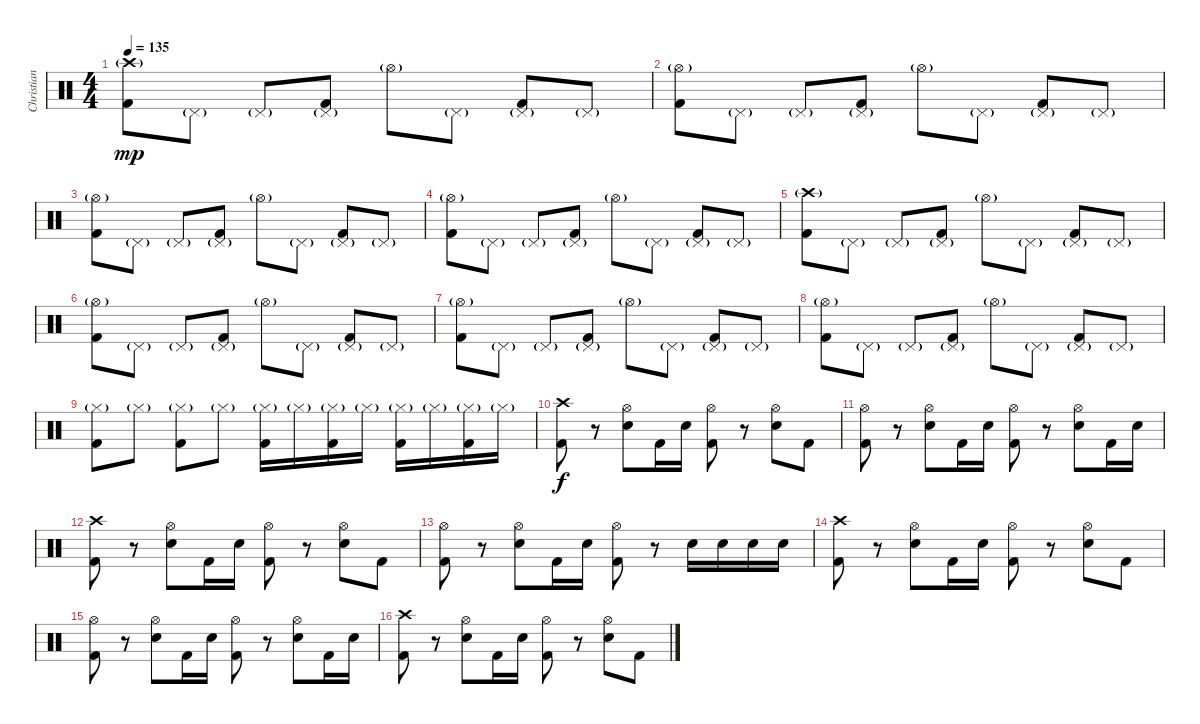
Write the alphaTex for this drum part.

\track ("Christian" "Christian") {instrument percussion}
\staff {score}
\articulation defaults
\ts (4 4)
\tempo 135
\clef neutral
\ks c
("Crash high (hit)"{g} "Kick (hit) 2").8{dy mp} "Pedal Hi-Hat (hit)"{g}.8 "Pedal Hi-Hat (hit)"{g}.8 ("Pedal Hi-Hat (hit)"{g} "Kick (hit) 2").8 "Hi-Hat (open)"{g}.8 "Pedal Hi-Hat (hit)"{g}.8 ("Pedal Hi-Hat (hit)"{g} "Kick (hit) 2").8 "Pedal Hi-Hat (hit)"{g}.8 |
("Hi-Hat (open)"{g} "Kick (hit) 2").8 "Pedal Hi-Hat (hit)"{g}.8 "Pedal Hi-Hat (hit)"{g}.8 ("Pedal Hi-Hat (hit)"{g} "Kick (hit) 2").8 "Hi-Hat (open)"{g}.8 "Pedal Hi-Hat (hit)"{g}.8 ("Pedal Hi-Hat (hit)"{g} "Kick (hit) 2").8 "Pedal Hi-Hat (hit)"{g}.8 |
("Hi-Hat (open)"{g} "Kick (hit) 2").8 "Pedal Hi-Hat (hit)"{g}.8 "Pedal Hi-Hat (hit)"{g}.8 ("Pedal Hi-Hat (hit)"{g} "Kick (hit) 2").8 "Hi-Hat (open)"{g}.8 "Pedal Hi-Hat (hit)"{g}.8 ("Pedal Hi-Hat (hit)"{g} "Kick (hit) 2").8 "Pedal Hi-Hat (hit)"{g}.8 |
("Hi-Hat (open)"{g} "Kick (hit) 2").8 "Pedal Hi-Hat (hit)"{g}.8 "Pedal Hi-Hat (hit)"{g}.8 ("Pedal Hi-Hat (hit)"{g} "Kick (hit) 2").8 "Hi-Hat (open)"{g}.8 "Pedal Hi-Hat (hit)"{g}.8 ("Pedal Hi-Hat (hit)"{g} "Kick (hit) 2").8 "Pedal Hi-Hat (hit)"{g}.8 |
("Crash high (hit)"{g} "Kick (hit) 2").8 "Pedal Hi-Hat (hit)"{g}.8 "Pedal Hi-Hat (hit)"{g}.8 ("Pedal Hi-Hat (hit)"{g} "Kick (hit) 2").8 "Hi-Hat (open)"{g}.8 "Pedal Hi-Hat (hit)"{g}.8 ("Pedal Hi-Hat (hit)"{g} "Kick (hit) 2").8 "Pedal Hi-Hat (hit)"{g}.8 |
("Hi-Hat (open)"{g} "Kick (hit) 2").8 "Pedal Hi-Hat (hit)"{g}.8 "Pedal Hi-Hat (hit)"{g}.8 ("Pedal Hi-Hat (hit)"{g} "Kick (hit) 2").8 "Hi-Hat (open)"{g}.8 "Pedal Hi-Hat (hit)"{g}.8 ("Pedal Hi-Hat (hit)"{g} "Kick (hit) 2").8 "Pedal Hi-Hat (hit)"{g}.8 |
("Hi-Hat (open)"{g} "Kick (hit) 2").8 "Pedal Hi-Hat (hit)"{g}.8 "Pedal Hi-Hat (hit)"{g}.8 ("Pedal Hi-Hat (hit)"{g} "Kick (hit) 2").8 "Hi-Hat (open)"{g}.8 "Pedal Hi-Hat (hit)"{g}.8 ("Pedal Hi-Hat (hit)"{g} "Kick (hit) 2").8 "Pedal Hi-Hat (hit)"{g}.8 |
("Hi-Hat (open)"{g} "Kick (hit) 2").8 "Pedal Hi-Hat (hit)"{g}.8 "Pedal Hi-Hat (hit)"{g}.8 ("Pedal Hi-Hat (hit)"{g} "Kick (hit) 2").8 "Hi-Hat (open)"{g}.8 "Pedal Hi-Hat (hit)"{g}.8 ("Pedal Hi-Hat (hit)"{g} "Kick (hit) 2").8 "Pedal Hi-Hat (hit)"{g}.8 |
("Hi-Hat (closed)"{g} "Kick (hit) 2").8 "Hi-Hat (closed)"{g}.8 ("Hi-Hat (closed)"{g} "Kick (hit) 2").8 "Hi-Hat (closed)"{g}.8 ("Hi-Hat (closed)"{g} "Kick (hit) 2").16 "Hi-Hat (closed)"{g}.16 ("Hi-Hat (closed)"{g} "Kick (hit) 2").16 "Hi-Hat (closed)"{g}.16 ("Hi-Hat (closed)"{g} "Kick (hit) 2").16 "Hi-Hat (closed)"{g}.16 ("Hi-Hat (closed)"{g} "Kick (hit) 2").16 "Hi-Hat (closed)"{g}.16 |
("Crash high (hit)" "Kick (hit) 2").8{dy f} r.8 ("Hi-Hat (open)" "Snare (hit) 2").8 "Kick (hit) 2".16 "Snare (hit) 2".16 ("Hi-Hat (open)" "Kick (hit) 2").8 r.8 ("Hi-Hat (open)" "Snare (hit) 2").8 "Kick (hit) 2".8 |
("Hi-Hat (open)" "Kick (hit) 2").8 r.8 ("Hi-Hat (open)" "Snare (hit) 2").8 "Kick (hit) 2".16 "Snare (hit) 2".16 ("Hi-Hat (open)" "Kick (hit) 2").8 r.8 ("Hi-Hat (open)" "Snare (hit) 2").8 "Kick (hit) 2".16 "Snare (hit) 2".16 |
("Crash high (hit)" "Kick (hit) 2").8 r.8 ("Hi-Hat (open)" "Snare (hit) 2").8 "Kick (hit) 2".16 "Snare (hit) 2".16 ("Hi-Hat (open)" "Kick (hit) 2").8 r.8 ("Hi-Hat (open)" "Snare (hit) 2").8 "Kick (hit) 2".8 |
("Hi-Hat (open)" "Kick (hit) 2").8 r.8 ("Hi-Hat (open)" "Snare (hit) 2").8 "Kick (hit) 2".16 "Snare (hit) 2".16 ("Hi-Hat (open)" "Kick (hit) 2").8 r.8 "Snare (hit) 2".16 "Snare (hit) 2".16 "Snare (hit) 2".16 "Snare (hit) 2".16 |
("Crash high (hit)" "Kick (hit) 2").8 r.8 ("Hi-Hat (open)" "Snare (hit) 2").8 "Kick (hit) 2".16 "Snare (hit) 2".16 ("Hi-Hat (open)" "Kick (hit) 2").8 r.8 ("Hi-Hat (open)" "Snare (hit) 2").8 "Kick (hit) 2".8 |
("Hi-Hat (open)" "Kick (hit) 2").8 r.8 ("Hi-Hat (open)" "Snare (hit) 2").8 "Kick (hit) 2".16 "Snare (hit) 2".16 ("Hi-Hat (open)" "Kick (hit) 2").8 r.8 ("Hi-Hat (open)" "Snare (hit) 2").8 "Kick (hit) 2".16 "Snare (hit) 2".16 |
("Crash high (hit)" "Kick (hit) 2").8 r.8 ("Hi-Hat (open)" "Snare (hit) 2").8 "Kick (hit) 2".16 "Snare (hit) 2".16 ("Hi-Hat (open)" "Kick (hit) 2").8 r.8 ("Hi-Hat (open)" "Snare (hit) 2").8 "Kick (hit) 2".8
